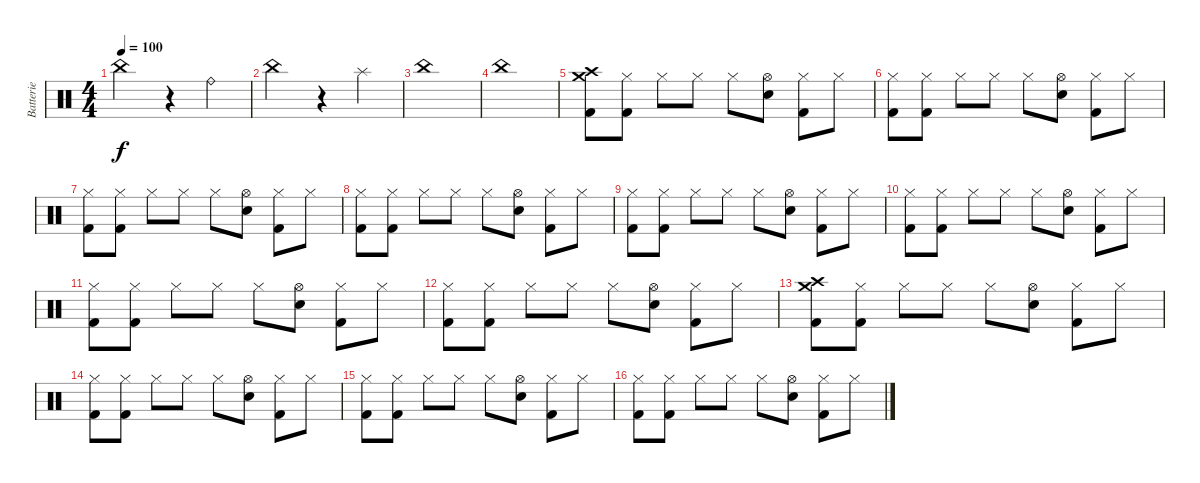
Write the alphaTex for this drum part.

\track ("Batterie" "Batterie") {instrument percussion}
\staff {score}
\articulation defaults
\ts (4 4)
\tempo 100
\clef neutral
\ks c "China (hit)".2{dy f}
r.4 "Ride (bell)".4 |
"China (hit)".2 r.4 "Splash (hit)".4 |
"China (hit)".1 |
"China (hit)".1 |
("Crash high (hit)" "Crash medium (hit)" "Kick (hit) 2").8 ("Hi-Hat (closed)" "Kick (hit) 2").8 "Hi-Hat (closed)".8 "Hi-Hat (closed)".8 "Hi-Hat (closed)".8 ("Hi-Hat (open)" "Snare (hit) 2").8 ("Hi-Hat (closed)" "Kick (hit) 2").8 "Hi-Hat (closed)".8 |
("Hi-Hat (closed)" "Kick (hit) 2").8 ("Hi-Hat (closed)" "Kick (hit) 2").8 "Hi-Hat (closed)".8 "Hi-Hat (closed)".8 "Hi-Hat (closed)".8 ("Hi-Hat (open)" "Snare (hit) 2").8 ("Hi-Hat (closed)" "Kick (hit) 2").8 "Hi-Hat (closed)".8 |
("Hi-Hat (closed)" "Kick (hit) 2").8 ("Hi-Hat (closed)" "Kick (hit) 2").8 "Hi-Hat (closed)".8 "Hi-Hat (closed)".8 "Hi-Hat (closed)".8 ("Hi-Hat (open)" "Snare (hit) 2").8 ("Hi-Hat (closed)" "Kick (hit) 2").8 "Hi-Hat (closed)".8 |
("Hi-Hat (closed)" "Kick (hit) 2").8 ("Hi-Hat (closed)" "Kick (hit) 2").8 "Hi-Hat (closed)".8 "Hi-Hat (closed)".8 "Hi-Hat (closed)".8 ("Hi-Hat (open)" "Snare (hit) 2").8 ("Hi-Hat (closed)" "Kick (hit) 2").8 "Hi-Hat (closed)".8 |
("Hi-Hat (closed)" "Kick (hit) 2").8 ("Hi-Hat (closed)" "Kick (hit) 2").8 "Hi-Hat (closed)".8 "Hi-Hat (closed)".8 "Hi-Hat (closed)".8 ("Hi-Hat (open)" "Snare (hit) 2").8 ("Hi-Hat (closed)" "Kick (hit) 2").8 "Hi-Hat (closed)".8 |
("Hi-Hat (closed)" "Kick (hit) 2").8 ("Hi-Hat (closed)" "Kick (hit) 2").8 "Hi-Hat (closed)".8 "Hi-Hat (closed)".8 "Hi-Hat (closed)".8 ("Hi-Hat (open)" "Snare (hit) 2").8 ("Hi-Hat (closed)" "Kick (hit) 2").8 "Hi-Hat (closed)".8 |
("Hi-Hat (closed)" "Kick (hit) 2").8 ("Hi-Hat (closed)" "Kick (hit) 2").8 "Hi-Hat (closed)".8 "Hi-Hat (closed)".8 "Hi-Hat (closed)".8 ("Hi-Hat (open)" "Snare (hit) 2").8 ("Hi-Hat (closed)" "Kick (hit) 2").8 "Hi-Hat (closed)".8 |
("Hi-Hat (closed)" "Kick (hit) 2").8 ("Hi-Hat (closed)" "Kick (hit) 2").8 "Hi-Hat (closed)".8 "Hi-Hat (closed)".8 "Hi-Hat (closed)".8 ("Hi-Hat (open)" "Snare (hit) 2").8 ("Hi-Hat (closed)" "Kick (hit) 2").8 "Hi-Hat (closed)".8 |
("Crash high (hit)" "Crash medium (hit)" "Kick (hit) 2").8 ("Hi-Hat (closed)" "Kick (hit) 2").8 "Hi-Hat (closed)".8 "Hi-Hat (closed)".8 "Hi-Hat (closed)".8 ("Hi-Hat (open)" "Snare (hit) 2").8 ("Hi-Hat (closed)" "Kick (hit) 2").8 "Hi-Hat (closed)".8 |
("Hi-Hat (closed)" "Kick (hit) 2").8 ("Hi-Hat (closed)" "Kick (hit) 2").8 "Hi-Hat (closed)".8 "Hi-Hat (closed)".8 "Hi-Hat (closed)".8 ("Hi-Hat (open)" "Snare (hit) 2").8 ("Hi-Hat (closed)" "Kick (hit) 2").8 "Hi-Hat (closed)".8 |
("Hi-Hat (closed)" "Kick (hit) 2").8 ("Hi-Hat (closed)" "Kick (hit) 2").8 "Hi-Hat (closed)".8 "Hi-Hat (closed)".8 "Hi-Hat (closed)".8 ("Hi-Hat (open)" "Snare (hit) 2").8 ("Hi-Hat (closed)" "Kick (hit) 2").8 "Hi-Hat (closed)".8 |
("Hi-Hat (closed)" "Kick (hit) 2").8 ("Hi-Hat (closed)" "Kick (hit) 2").8 "Hi-Hat (closed)".8 "Hi-Hat (closed)".8 "Hi-Hat (closed)".8 ("Hi-Hat (open)" "Snare (hit) 2").8 ("Hi-Hat (closed)" "Kick (hit) 2").8 "Hi-Hat (closed)".8
